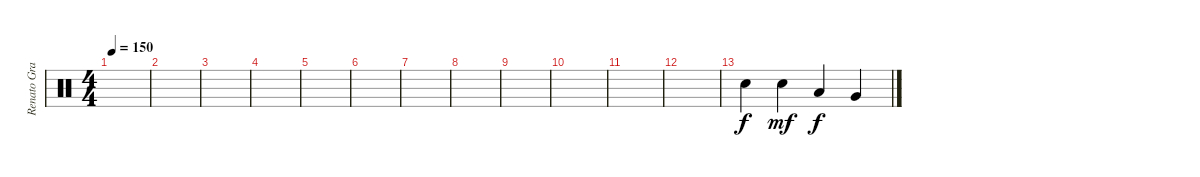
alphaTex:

\track ("Renato Graccia" "Renato Gra") {instrument percussion}
\staff {score}
\articulation defaults
\ts (4 4)
\tempo 150
\clef neutral
\ks c
|
|
|
|
|
|
|
|
|
|
|
|
"Electric Snare (hit)".4 "Snare (hit) 2".4{dy mf} "Low Floor Tom (hit)".4{dy f} "Very Low Tom (hit)".4
